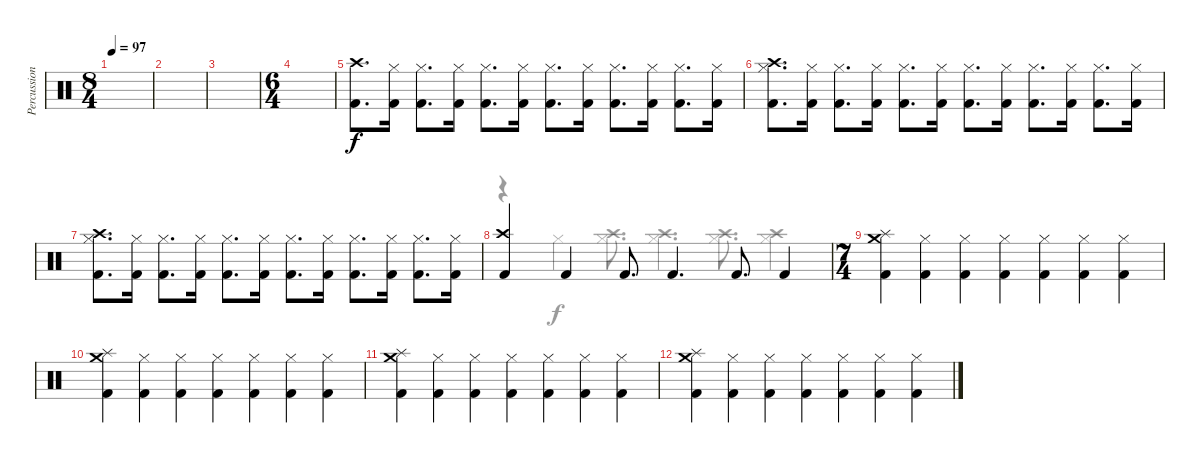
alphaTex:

\track ("Percussion" "Percussion") {instrument percussion}
\staff {score}
\articulation defaults
\voice
\ts (8 4)
\tempo 97
\clef neutral
\ks c
|
|
|
\ts (6 4)
|
("Crash high (hit)" "Kick (hit) 2").8{d} ("Kick (hit) 2" "Hi-Hat (closed)").16 ("Kick (hit) 2" "Hi-Hat (closed)").8{d} ("Kick (hit) 2" "Hi-Hat (closed)").16 ("Kick (hit) 2" "Hi-Hat (closed)").8{d} ("Kick (hit) 2" "Hi-Hat (closed)").16 ("Kick (hit) 2" "Hi-Hat (closed)").8{d} ("Kick (hit) 2" "Hi-Hat (closed)").16 ("Kick (hit) 2" "Hi-Hat (closed)").8{d} ("Kick (hit) 2" "Hi-Hat (closed)").16 ("Kick (hit) 2" "Hi-Hat (closed)").8{d} ("Kick (hit) 2" "Hi-Hat (closed)").16 |
("Crash high (hit)" "Kick (hit) 2" "Hi-Hat (closed)").8{d} ("Kick (hit) 2" "Hi-Hat (closed)").16 ("Kick (hit) 2" "Hi-Hat (closed)").8{d} ("Kick (hit) 2" "Hi-Hat (closed)").16 ("Kick (hit) 2" "Hi-Hat (closed)").8{d} ("Kick (hit) 2" "Hi-Hat (closed)").16 ("Kick (hit) 2" "Hi-Hat (closed)").8{d} ("Kick (hit) 2" "Hi-Hat (closed)").16 ("Kick (hit) 2" "Hi-Hat (closed)").8{d} ("Kick (hit) 2" "Hi-Hat (closed)").16 ("Kick (hit) 2" "Hi-Hat (closed)").8{d} ("Kick (hit) 2" "Hi-Hat (closed)").16 |
("Crash high (hit)" "Kick (hit) 2" "Hi-Hat (closed)").8{d} ("Kick (hit) 2" "Hi-Hat (closed)").16 ("Kick (hit) 2" "Hi-Hat (closed)").8{d} ("Kick (hit) 2" "Hi-Hat (closed)").16 ("Kick (hit) 2" "Hi-Hat (closed)").8{d} ("Kick (hit) 2" "Hi-Hat (closed)").16 ("Kick (hit) 2" "Hi-Hat (closed)").8{d} ("Kick (hit) 2" "Hi-Hat (closed)").16 ("Kick (hit) 2" "Hi-Hat (closed)").8{d} ("Kick (hit) 2" "Hi-Hat (closed)").16 ("Kick (hit) 2" "Hi-Hat (closed)").8{d} ("Kick (hit) 2" "Hi-Hat (closed)").16 |
("Kick (hit) 2" "Crash high (hit)").4 "Kick (hit) 2".4 "Kick (hit) 2".8{d} "Kick (hit) 2".4{d} "Kick (hit) 2".8{d} "Kick (hit) 2".4 |
\ts (7 4)
("Crash medium (hit)" "Kick (hit) 2" "Splash (hit)").4 ("Kick (hit) 2" "Hi-Hat (closed)").4 ("Kick (hit) 2" "Hi-Hat (closed)").4 ("Kick (hit) 2" "Hi-Hat (closed)").4 ("Kick (hit) 2" "Hi-Hat (closed)").4 ("Kick (hit) 2" "Hi-Hat (closed)").4 ("Kick (hit) 2" "Hi-Hat (closed)").4 |
("Crash medium (hit)" "Kick (hit) 2" "Splash (hit)").4 ("Kick (hit) 2" "Hi-Hat (closed)").4 ("Kick (hit) 2" "Hi-Hat (closed)").4 ("Kick (hit) 2" "Hi-Hat (closed)").4 ("Kick (hit) 2" "Hi-Hat (closed)").4 ("Kick (hit) 2" "Hi-Hat (closed)").4 ("Kick (hit) 2" "Hi-Hat (closed)").4 |
("Crash medium (hit)" "Kick (hit) 2" "Splash (hit)").4 ("Kick (hit) 2" "Hi-Hat (closed)").4 ("Kick (hit) 2" "Hi-Hat (closed)").4 ("Kick (hit) 2" "Hi-Hat (closed)").4 ("Kick (hit) 2" "Hi-Hat (closed)").4 ("Kick (hit) 2" "Hi-Hat (closed)").4 ("Kick (hit) 2" "Hi-Hat (closed)").4 |
("Crash medium (hit)" "Kick (hit) 2" "Splash (hit)").4 ("Kick (hit) 2" "Hi-Hat (closed)").4 ("Kick (hit) 2" "Hi-Hat (closed)").4 ("Kick (hit) 2" "Hi-Hat (closed)").4 ("Kick (hit) 2" "Hi-Hat (closed)").4 ("Kick (hit) 2" "Hi-Hat (closed)").4 ("Kick (hit) 2" "Hi-Hat (closed)").4
\voice
\clef neutral
\ottava regular
\simile none
\ks c
|
|
|
|
|
|
|
r.4 "Hi-Hat (closed)".4 ("Crash high (hit)" "Hi-Hat (closed)").8{d} ("Crash high (hit)" "Hi-Hat (closed)").4{d} ("Crash high (hit)" "Hi-Hat (closed)").8{d} ("Crash high (hit)" "Hi-Hat (closed)").4 |
|
|
|
